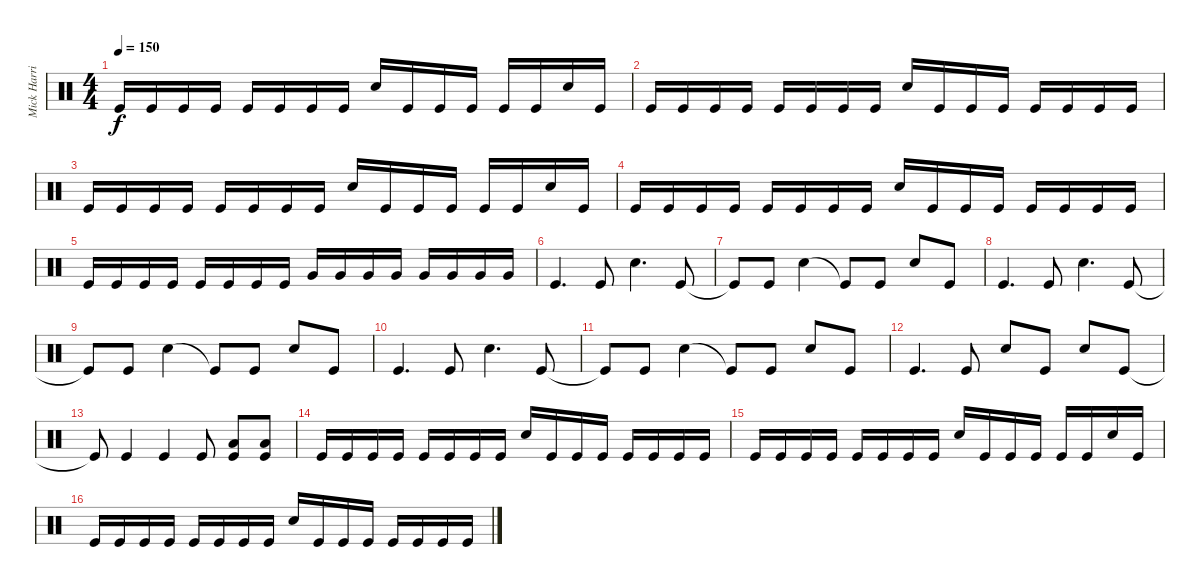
\track ("Mick Harris" "Mick Harri") {instrument percussion}
\staff {score}
\articulation defaults
\ts (4 4)
\tempo 150
\clef neutral
\ks c "Kick (hit)".16{dy f} "Kick (hit)".16 "Kick (hit)".16 "Kick (hit)".16 "Kick (hit)".16 "Kick (hit)".16 "Kick (hit)".16 "Kick (hit)".16 "Snare (hit) 2".16 "Kick (hit)".16 "Kick (hit)".16 "Kick (hit)".16 "Kick (hit)".16 "Kick (hit)".16 "Snare (hit) 2".16 "Kick (hit)".16
|
"Kick (hit)".16 "Kick (hit)".16 "Kick (hit)".16 "Kick (hit)".16 "Kick (hit)".16 "Kick (hit)".16 "Kick (hit)".16 "Kick (hit)".16 "Snare (hit) 2".16 "Kick (hit)".16 "Kick (hit)".16 "Kick (hit)".16 "Kick (hit)".16 "Kick (hit)".16 "Kick (hit)".16 "Kick (hit)".16 |
"Kick (hit)".16 "Kick (hit)".16 "Kick (hit)".16 "Kick (hit)".16 "Kick (hit)".16 "Kick (hit)".16 "Kick (hit)".16 "Kick (hit)".16 "Snare (hit) 2".16 "Kick (hit)".16 "Kick (hit)".16 "Kick (hit)".16 "Kick (hit)".16 "Kick (hit)".16 "Snare (hit) 2".16 "Kick (hit)".16 |
"Kick (hit)".16 "Kick (hit)".16 "Kick (hit)".16 "Kick (hit)".16 "Kick (hit)".16 "Kick (hit)".16 "Kick (hit)".16 "Kick (hit)".16 "Snare (hit) 2".16 "Kick (hit)".16 "Kick (hit)".16 "Kick (hit)".16 "Kick (hit)".16 "Kick (hit)".16 "Kick (hit)".16 "Kick (hit)".16 |
"Kick (hit)".16 "Kick (hit)".16 "Kick (hit)".16 "Kick (hit)".16 "Kick (hit)".16 "Kick (hit)".16 "Kick (hit)".16 "Kick (hit)".16 "Very Low Tom (hit)".16 "Very Low Tom (hit)".16 "Very Low Tom (hit)".16 "Very Low Tom (hit)".16 "Very Low Tom (hit)".16 "Very Low Tom (hit)".16 "Very Low Tom (hit)".16 "Very Low Tom (hit)".16 |
"Kick (hit)".4{d} "Kick (hit)".8 "Snare (hit) 2".4{d} "Kick (hit)".8 |
"Kick (hit)"{t}.8 "Kick (hit)".8 "Snare (hit) 2".4 "Kick (hit)"{t}.8 "Kick (hit)".8 "Snare (hit) 2".8 "Kick (hit)".8 |
"Kick (hit)".4{d} "Kick (hit)".8 "Snare (hit) 2".4{d} "Kick (hit)".8 |
"Kick (hit)"{t}.8 "Kick (hit)".8 "Snare (hit) 2".4 "Kick (hit)"{t}.8 "Kick (hit)".8 "Snare (hit) 2".8 "Kick (hit)".8 |
"Kick (hit)".4{d} "Kick (hit)".8 "Snare (hit) 2".4{d} "Kick (hit)".8 |
"Kick (hit)"{t}.8 "Kick (hit)".8 "Snare (hit) 2".4 "Kick (hit)"{t}.8 "Kick (hit)".8 "Snare (hit) 2".8 "Kick (hit)".8 |
"Kick (hit)".4{d} "Kick (hit)".8 "Snare (hit) 2".8 "Kick (hit)".8 "Snare (hit) 2".8 "Kick (hit)".8 |
"Kick (hit)"{t}.8 "Kick (hit)".4 "Kick (hit)".4 "Kick (hit)".8 ("Low Floor Tom (hit)" "Kick (hit)").8 ("Low Floor Tom (hit)" "Kick (hit)").8 |
"Kick (hit)".16 "Kick (hit)".16 "Kick (hit)".16 "Kick (hit)".16 "Kick (hit)".16 "Kick (hit)".16 "Kick (hit)".16 "Kick (hit)".16 "Snare (hit) 2".16 "Kick (hit)".16 "Kick (hit)".16 "Kick (hit)".16 "Kick (hit)".16 "Kick (hit)".16 "Kick (hit)".16 "Kick (hit)".16 |
"Kick (hit)".16 "Kick (hit)".16 "Kick (hit)".16 "Kick (hit)".16 "Kick (hit)".16 "Kick (hit)".16 "Kick (hit)".16 "Kick (hit)".16 "Snare (hit) 2".16 "Kick (hit)".16 "Kick (hit)".16 "Kick (hit)".16 "Kick (hit)".16 "Kick (hit)".16 "Snare (hit) 2".16 "Kick (hit)".16 |
"Kick (hit)".16 "Kick (hit)".16 "Kick (hit)".16 "Kick (hit)".16 "Kick (hit)".16 "Kick (hit)".16 "Kick (hit)".16 "Kick (hit)".16 "Snare (hit) 2".16 "Kick (hit)".16 "Kick (hit)".16 "Kick (hit)".16 "Kick (hit)".16 "Kick (hit)".16 "Kick (hit)".16 "Kick (hit)".16
